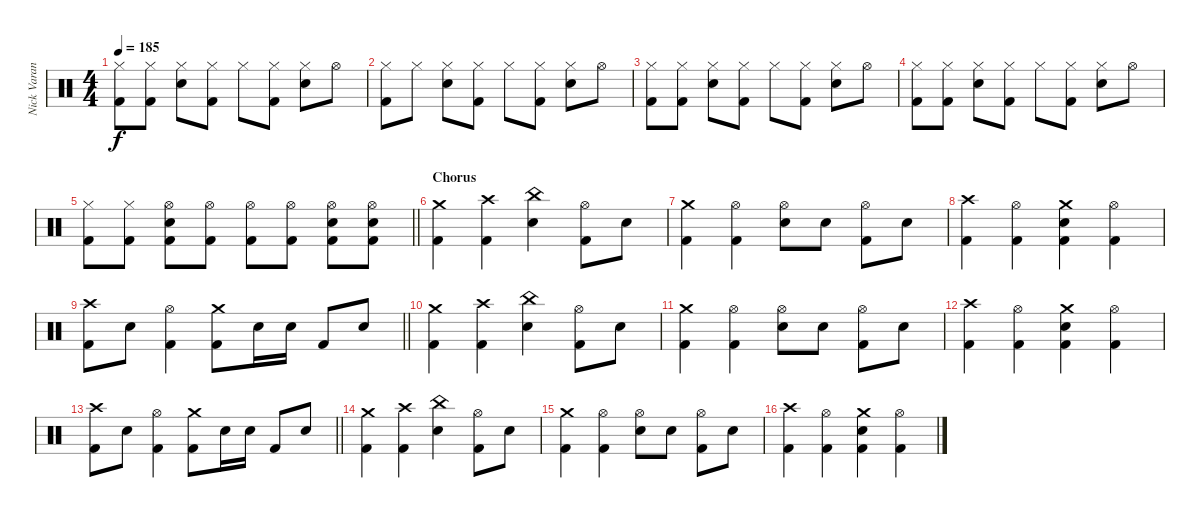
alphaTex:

\track ("Nick Varano (Drums)" "Nick Varan") {instrument percussion}
\staff {score}
\articulation defaults
\ts (4 4)
\tempo 185
\clef neutral
\ks c
("Hi-Hat (closed)" "Kick (hit) 2").8{dy f} ("Hi-Hat (closed)" "Kick (hit) 2").8 ("Hi-Hat (closed)" "Electric Snare (hit)").8 ("Hi-Hat (closed)" "Kick (hit) 2").8 "Hi-Hat (closed)".8 ("Hi-Hat (closed)" "Kick (hit) 2").8 ("Hi-Hat (closed)" "Electric Snare (hit)").8 "Hi-Hat (open)".8 |
("Hi-Hat (closed)" "Kick (hit) 2").8 "Hi-Hat (closed)".8 ("Hi-Hat (closed)" "Electric Snare (hit)").8 ("Hi-Hat (closed)" "Kick (hit) 2").8 "Hi-Hat (closed)".8 ("Hi-Hat (closed)" "Kick (hit) 2").8 ("Hi-Hat (closed)" "Electric Snare (hit)").8 "Hi-Hat (open)".8 |
("Hi-Hat (closed)" "Kick (hit) 2").8 ("Hi-Hat (closed)" "Kick (hit) 2").8 ("Hi-Hat (closed)" "Electric Snare (hit)").8 ("Hi-Hat (closed)" "Kick (hit) 2").8 "Hi-Hat (closed)".8 ("Hi-Hat (closed)" "Kick (hit) 2").8 ("Hi-Hat (closed)" "Electric Snare (hit)").8 "Hi-Hat (open)".8 |
("Hi-Hat (closed)" "Kick (hit) 2").8 ("Hi-Hat (closed)" "Kick (hit) 2").8 ("Hi-Hat (closed)" "Electric Snare (hit)").8 ("Hi-Hat (closed)" "Kick (hit) 2").8 "Hi-Hat (closed)".8 ("Hi-Hat (closed)" "Kick (hit) 2").8 ("Hi-Hat (closed)" "Electric Snare (hit)").8 "Hi-Hat (open)".8 |
\barLineRight lightlight
("Hi-Hat (closed)" "Kick (hit) 2").8 ("Hi-Hat (closed)" "Kick (hit) 2").8 ("Hi-Hat (open)" "Electric Snare (hit)" "Kick (hit) 2").8 ("Hi-Hat (open)" "Kick (hit) 2").8 ("Hi-Hat (open)" "Kick (hit) 2").8 ("Hi-Hat (open)" "Kick (hit) 2").8 ("Hi-Hat (open)" "Electric Snare (hit)" "Kick (hit) 2").8 ("Hi-Hat (open)" "Electric Snare (hit)" "Kick (hit) 2").8 |
\section ("" "Chorus")
("Crash medium (hit)" "Kick (hit) 2").4 ("Crash high (hit)" "Kick (hit) 2").4 ("China (hit)" "Electric Snare (hit)").4 ("Hi-Hat (open)" "Kick (hit) 2").8 "Electric Snare (hit)".8 |
("Crash medium (hit)" "Kick (hit) 2").4 ("Hi-Hat (open)" "Kick (hit) 2").4 ("Hi-Hat (open)" "Electric Snare (hit)").8 "Electric Snare (hit)".8 ("Hi-Hat (open)" "Kick (hit) 2").8 "Electric Snare (hit)".8 |
("Crash high (hit)" "Kick (hit) 2").4 ("Hi-Hat (open)" "Kick (hit) 2").4 ("Crash medium (hit)" "Electric Snare (hit)" "Kick (hit) 2").4 ("Hi-Hat (open)" "Kick (hit) 2").4 |
\barLineRight lightlight
("Crash high (hit)" "Kick (hit) 2").8 "Electric Snare (hit)".8 ("Hi-Hat (open)" "Kick (hit) 2").4 ("Crash medium (hit)" "Kick (hit) 2").8 "Electric Snare (hit)".16 "Electric Snare (hit)".16 "Kick (hit) 2".8 "Electric Snare (hit)".8 |
("Crash medium (hit)" "Kick (hit) 2").4 ("Crash high (hit)" "Kick (hit) 2").4 ("China (hit)" "Electric Snare (hit)").4 ("Hi-Hat (open)" "Kick (hit) 2").8 "Electric Snare (hit)".8 |
("Crash medium (hit)" "Kick (hit) 2").4 ("Hi-Hat (open)" "Kick (hit) 2").4 ("Hi-Hat (open)" "Electric Snare (hit)").8 "Electric Snare (hit)".8 ("Hi-Hat (open)" "Kick (hit) 2").8 "Electric Snare (hit)".8 |
("Crash high (hit)" "Kick (hit) 2").4 ("Hi-Hat (open)" "Kick (hit) 2").4 ("Crash medium (hit)" "Electric Snare (hit)" "Kick (hit) 2").4 ("Hi-Hat (open)" "Kick (hit) 2").4 |
\barLineRight lightlight
("Crash high (hit)" "Kick (hit) 2").8 "Electric Snare (hit)".8 ("Hi-Hat (open)" "Kick (hit) 2").4 ("Crash medium (hit)" "Kick (hit) 2").8 "Electric Snare (hit)".16 "Electric Snare (hit)".16 "Kick (hit) 2".8 "Electric Snare (hit)".8 |
("Crash medium (hit)" "Kick (hit) 2").4 ("Crash high (hit)" "Kick (hit) 2").4 ("China (hit)" "Electric Snare (hit)").4 ("Hi-Hat (open)" "Kick (hit) 2").8 "Electric Snare (hit)".8 |
("Crash medium (hit)" "Kick (hit) 2").4 ("Hi-Hat (open)" "Kick (hit) 2").4 ("Hi-Hat (open)" "Electric Snare (hit)").8 "Electric Snare (hit)".8 ("Hi-Hat (open)" "Kick (hit) 2").8 "Electric Snare (hit)".8 |
("Crash high (hit)" "Kick (hit) 2").4 ("Hi-Hat (open)" "Kick (hit) 2").4 ("Crash medium (hit)" "Electric Snare (hit)" "Kick (hit) 2").4 ("Hi-Hat (open)" "Kick (hit) 2").4
